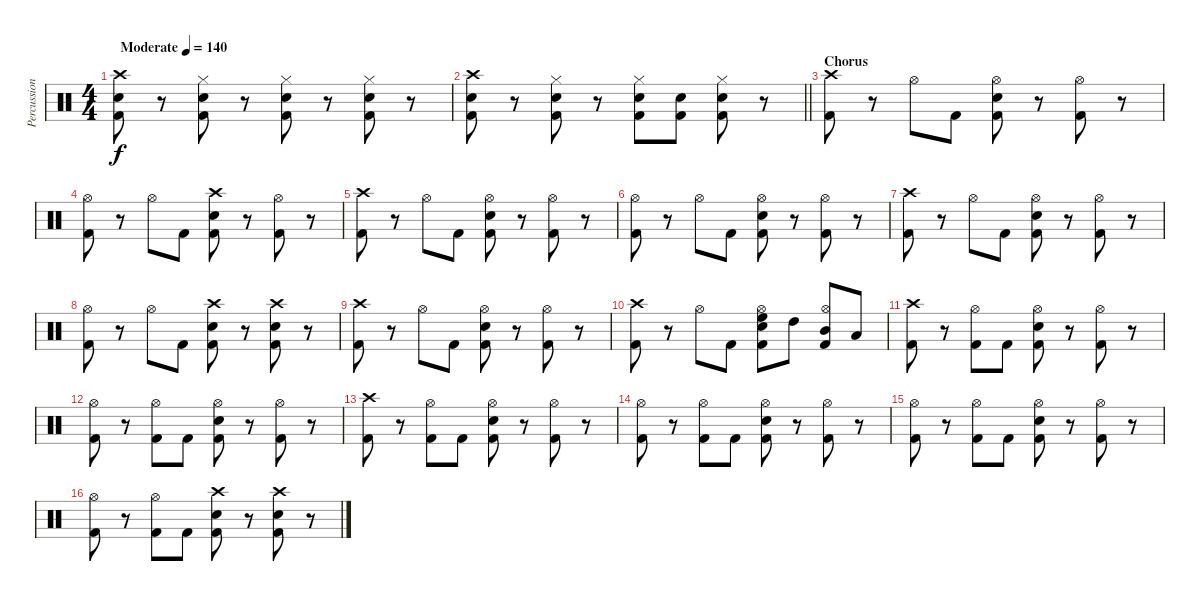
\track ("Percussion" "Percussion") {instrument percussion}
\staff
\articulation defaults
\ts (4 4)
\tempo (140 "Moderate")
\clef neutral
\ks c
("Crash high (hit)" "Snare (hit) 2" "Kick (hit) 2").8{dy f} r.8 ("Hi-Hat (closed)" "Snare (hit) 2" "Kick (hit) 2").8 r.8 ("Hi-Hat (closed)" "Snare (hit) 2" "Kick (hit) 2").8 r.8 ("Hi-Hat (closed)" "Snare (hit) 2" "Kick (hit) 2").8 r.8 |
\barLineRight lightlight
("Crash high (hit)" "Snare (hit) 2" "Kick (hit) 2").8 r.8 ("Hi-Hat (closed)" "Snare (hit) 2" "Kick (hit) 2").8 r.8 ("Hi-Hat (closed)" "Snare (hit) 2" "Kick (hit) 2").8 ("Snare (hit) 2" "Kick (hit) 2").8 ("Hi-Hat (closed)" "Snare (hit) 2" "Kick (hit) 2").8 r.8 |
\section ("" "Chorus")
("Crash high (hit)" "Kick (hit) 2").8 r.8 "Hi-Hat (open)".8 "Kick (hit) 2".8 ("Hi-Hat (open)" "Snare (hit) 2" "Kick (hit) 2").8 r.8 ("Hi-Hat (open)" "Kick (hit) 2").8 r.8 |
("Hi-Hat (open)" "Kick (hit) 2").8 r.8 "Hi-Hat (open)".8 "Kick (hit) 2".8 ("Crash high (hit)" "Snare (hit) 2" "Kick (hit) 2").8 r.8 ("Hi-Hat (open)" "Kick (hit) 2").8 r.8 |
("Crash high (hit)" "Kick (hit) 2").8 r.8 "Hi-Hat (open)".8 "Kick (hit) 2".8 ("Hi-Hat (open)" "Snare (hit) 2" "Kick (hit) 2").8 r.8 ("Hi-Hat (open)" "Kick (hit) 2").8 r.8 |
("Hi-Hat (open)" "Kick (hit) 2").8 r.8 "Hi-Hat (open)".8 "Kick (hit) 2".8 ("Hi-Hat (open)" "Snare (hit) 2" "Kick (hit) 2").8 r.8 ("Hi-Hat (open)" "Kick (hit) 2").8 r.8 |
("Crash high (hit)" "Kick (hit) 2").8 r.8 "Hi-Hat (open)".8 "Kick (hit) 2".8 ("Hi-Hat (open)" "Snare (hit) 2" "Kick (hit) 2").8 r.8 ("Hi-Hat (open)" "Kick (hit) 2").8 r.8 |
("Hi-Hat (open)" "Kick (hit) 2").8 r.8 "Hi-Hat (open)".8 "Kick (hit) 2".8 ("Crash high (hit)" "Snare (hit) 2" "Kick (hit) 2").8 r.8 ("Crash high (hit)" "Snare (hit) 2" "Kick (hit) 2").8 r.8 |
("Crash high (hit)" "Kick (hit) 2").8 r.8 "Hi-Hat (open)".8 "Kick (hit) 2".8 ("Hi-Hat (open)" "Snare (hit) 2" "Kick (hit) 2").8 r.8 ("Hi-Hat (open)" "Kick (hit) 2").8 r.8 |
("Crash high (hit)" "Kick (hit) 2").8 r.8 "Hi-Hat (open)".8 "Kick (hit) 2".8 ("Hi-Hat (open)" "High Floor Tom (hit)" "Snare (hit) 2" "Kick (hit) 2").8 "High Tom (hit)".8 ("Hi-Hat (open)" "Mid Tom (hit)" "Kick (hit) 2").8 "Low Tom (hit)".8 |
("Crash high (hit)" "Kick (hit) 2").8 r.8 ("Hi-Hat (open)" "Kick (hit) 2").8 "Kick (hit) 2".8 ("Hi-Hat (open)" "Snare (hit) 2" "Kick (hit) 2").8 r.8 ("Hi-Hat (open)" "Kick (hit) 2").8 r.8 |
("Hi-Hat (open)" "Kick (hit) 2").8 r.8 ("Hi-Hat (open)" "Kick (hit) 2").8 "Kick (hit) 2".8 ("Hi-Hat (open)" "Snare (hit) 2" "Kick (hit) 2").8 r.8 ("Hi-Hat (open)" "Kick (hit) 2").8 r.8 |
("Crash high (hit)" "Kick (hit) 2").8 r.8 ("Hi-Hat (open)" "Kick (hit) 2").8 "Kick (hit) 2".8 ("Hi-Hat (open)" "Snare (hit) 2" "Kick (hit) 2").8 r.8 ("Hi-Hat (open)" "Kick (hit) 2").8 r.8 |
("Hi-Hat (open)" "Kick (hit) 2").8 r.8 ("Hi-Hat (open)" "Kick (hit) 2").8 "Kick (hit) 2".8 ("Hi-Hat (open)" "Snare (hit) 2" "Kick (hit) 2").8 r.8 ("Hi-Hat (open)" "Kick (hit) 2").8 r.8 |
("Hi-Hat (open)" "Kick (hit) 2").8 r.8 ("Hi-Hat (open)" "Kick (hit) 2").8 "Kick (hit) 2".8 ("Hi-Hat (open)" "Snare (hit) 2" "Kick (hit) 2").8 r.8 ("Hi-Hat (open)" "Kick (hit) 2").8 r.8 |
("Hi-Hat (open)" "Kick (hit) 2").8 r.8 ("Hi-Hat (open)" "Kick (hit) 2").8 "Kick (hit) 2".8 ("Crash high (hit)" "Snare (hit) 2" "Kick (hit) 2").8 r.8 ("Crash high (hit)" "Snare (hit) 2" "Kick (hit) 2").8 r.8
